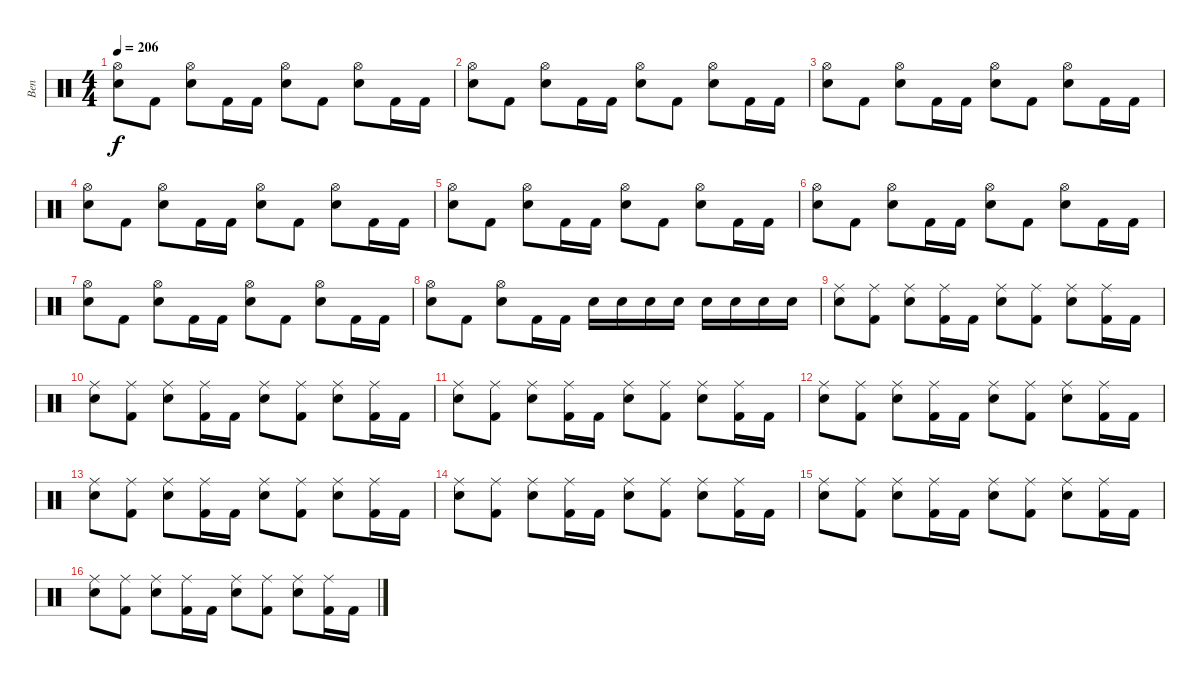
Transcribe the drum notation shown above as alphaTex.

\track ("Ben" "Ben") {instrument percussion}
\staff {score}
\articulation defaults
\ts (4 4)
\tempo 206
\clef neutral
\ks c
("Hi-Hat (open)" "Electric Snare (hit)").8{dy f} "Kick (hit) 2".8 ("Hi-Hat (open)" "Electric Snare (hit)").8 "Kick (hit) 2".16 "Kick (hit) 2".16 ("Hi-Hat (open)" "Electric Snare (hit)").8 "Kick (hit) 2".8 ("Hi-Hat (open)" "Electric Snare (hit)").8 "Kick (hit) 2".16 "Kick (hit) 2".16 |
("Hi-Hat (open)" "Electric Snare (hit)").8 "Kick (hit) 2".8 ("Hi-Hat (open)" "Electric Snare (hit)").8 "Kick (hit) 2".16 "Kick (hit) 2".16 ("Hi-Hat (open)" "Electric Snare (hit)").8 "Kick (hit) 2".8 ("Hi-Hat (open)" "Electric Snare (hit)").8 "Kick (hit) 2".16 "Kick (hit) 2".16 |
("Hi-Hat (open)" "Electric Snare (hit)").8 "Kick (hit) 2".8 ("Hi-Hat (open)" "Electric Snare (hit)").8 "Kick (hit) 2".16 "Kick (hit) 2".16 ("Hi-Hat (open)" "Electric Snare (hit)").8 "Kick (hit) 2".8 ("Hi-Hat (open)" "Electric Snare (hit)").8 "Kick (hit) 2".16 "Kick (hit) 2".16 |
("Hi-Hat (open)" "Electric Snare (hit)").8 "Kick (hit) 2".8 ("Hi-Hat (open)" "Electric Snare (hit)").8 "Kick (hit) 2".16 "Kick (hit) 2".16 ("Hi-Hat (open)" "Electric Snare (hit)").8 "Kick (hit) 2".8 ("Hi-Hat (open)" "Electric Snare (hit)").8 "Kick (hit) 2".16 "Kick (hit) 2".16 |
("Hi-Hat (open)" "Electric Snare (hit)").8 "Kick (hit) 2".8 ("Hi-Hat (open)" "Electric Snare (hit)").8 "Kick (hit) 2".16 "Kick (hit) 2".16 ("Hi-Hat (open)" "Electric Snare (hit)").8 "Kick (hit) 2".8 ("Hi-Hat (open)" "Electric Snare (hit)").8 "Kick (hit) 2".16 "Kick (hit) 2".16 |
("Hi-Hat (open)" "Electric Snare (hit)").8 "Kick (hit) 2".8 ("Hi-Hat (open)" "Electric Snare (hit)").8 "Kick (hit) 2".16 "Kick (hit) 2".16 ("Hi-Hat (open)" "Electric Snare (hit)").8 "Kick (hit) 2".8 ("Hi-Hat (open)" "Electric Snare (hit)").8 "Kick (hit) 2".16 "Kick (hit) 2".16 |
("Hi-Hat (open)" "Electric Snare (hit)").8 "Kick (hit) 2".8 ("Hi-Hat (open)" "Electric Snare (hit)").8 "Kick (hit) 2".16 "Kick (hit) 2".16 ("Hi-Hat (open)" "Electric Snare (hit)").8 "Kick (hit) 2".8 ("Hi-Hat (open)" "Electric Snare (hit)").8 "Kick (hit) 2".16 "Kick (hit) 2".16 |
("Hi-Hat (open)" "Electric Snare (hit)").8 "Kick (hit) 2".8 ("Hi-Hat (open)" "Electric Snare (hit)").8 "Kick (hit) 2".16 "Kick (hit) 2".16 "Electric Snare (hit)".16 "Electric Snare (hit)".16 "Electric Snare (hit)".16 "Electric Snare (hit)".16 "Electric Snare (hit)".16 "Electric Snare (hit)".16 "Electric Snare (hit)".16 "Electric Snare (hit)".16 |
("Ride (middle)" "Electric Snare (hit)").8 ("Ride (middle)" "Kick (hit) 2").8 ("Ride (middle)" "Electric Snare (hit)").8 ("Ride (middle)" "Kick (hit) 2").16 "Kick (hit) 2".16 ("Ride (middle)" "Electric Snare (hit)").8 ("Ride (middle)" "Kick (hit) 2").8 ("Ride (middle)" "Electric Snare (hit)").8 ("Ride (middle)" "Kick (hit) 2").16 "Kick (hit) 2".16 |
("Ride (middle)" "Electric Snare (hit)").8 ("Ride (middle)" "Kick (hit) 2").8 ("Ride (middle)" "Electric Snare (hit)").8 ("Ride (middle)" "Kick (hit) 2").16 "Kick (hit) 2".16 ("Ride (middle)" "Electric Snare (hit)").8 ("Ride (middle)" "Kick (hit) 2").8 ("Ride (middle)" "Electric Snare (hit)").8 ("Ride (middle)" "Kick (hit) 2").16 "Kick (hit) 2".16 |
("Ride (middle)" "Electric Snare (hit)").8 ("Ride (middle)" "Kick (hit) 2").8 ("Ride (middle)" "Electric Snare (hit)").8 ("Ride (middle)" "Kick (hit) 2").16 "Kick (hit) 2".16 ("Ride (middle)" "Electric Snare (hit)").8 ("Ride (middle)" "Kick (hit) 2").8 ("Ride (middle)" "Electric Snare (hit)").8 ("Ride (middle)" "Kick (hit) 2").16 "Kick (hit) 2".16 |
("Ride (middle)" "Electric Snare (hit)").8 ("Ride (middle)" "Kick (hit) 2").8 ("Ride (middle)" "Electric Snare (hit)").8 ("Ride (middle)" "Kick (hit) 2").16 "Kick (hit) 2".16 ("Ride (middle)" "Electric Snare (hit)").8 ("Ride (middle)" "Kick (hit) 2").8 ("Ride (middle)" "Electric Snare (hit)").8 ("Ride (middle)" "Kick (hit) 2").16 "Kick (hit) 2".16 |
("Ride (middle)" "Electric Snare (hit)").8 ("Ride (middle)" "Kick (hit) 2").8 ("Ride (middle)" "Electric Snare (hit)").8 ("Ride (middle)" "Kick (hit) 2").16 "Kick (hit) 2".16 ("Ride (middle)" "Electric Snare (hit)").8 ("Ride (middle)" "Kick (hit) 2").8 ("Ride (middle)" "Electric Snare (hit)").8 ("Ride (middle)" "Kick (hit) 2").16 "Kick (hit) 2".16 |
("Ride (middle)" "Electric Snare (hit)").8 ("Ride (middle)" "Kick (hit) 2").8 ("Ride (middle)" "Electric Snare (hit)").8 ("Ride (middle)" "Kick (hit) 2").16 "Kick (hit) 2".16 ("Ride (middle)" "Electric Snare (hit)").8 ("Ride (middle)" "Kick (hit) 2").8 ("Ride (middle)" "Electric Snare (hit)").8 ("Ride (middle)" "Kick (hit) 2").16 "Kick (hit) 2".16 |
("Ride (middle)" "Electric Snare (hit)").8 ("Ride (middle)" "Kick (hit) 2").8 ("Ride (middle)" "Electric Snare (hit)").8 ("Ride (middle)" "Kick (hit) 2").16 "Kick (hit) 2".16 ("Ride (middle)" "Electric Snare (hit)").8 ("Ride (middle)" "Kick (hit) 2").8 ("Ride (middle)" "Electric Snare (hit)").8 ("Ride (middle)" "Kick (hit) 2").16 "Kick (hit) 2".16 |
("Ride (middle)" "Electric Snare (hit)").8 ("Ride (middle)" "Kick (hit) 2").8 ("Ride (middle)" "Electric Snare (hit)").8 ("Ride (middle)" "Kick (hit) 2").16 "Kick (hit) 2".16 ("Ride (middle)" "Electric Snare (hit)").8 ("Ride (middle)" "Kick (hit) 2").8 ("Ride (middle)" "Electric Snare (hit)").8 ("Ride (middle)" "Kick (hit) 2").16 "Kick (hit) 2".16
